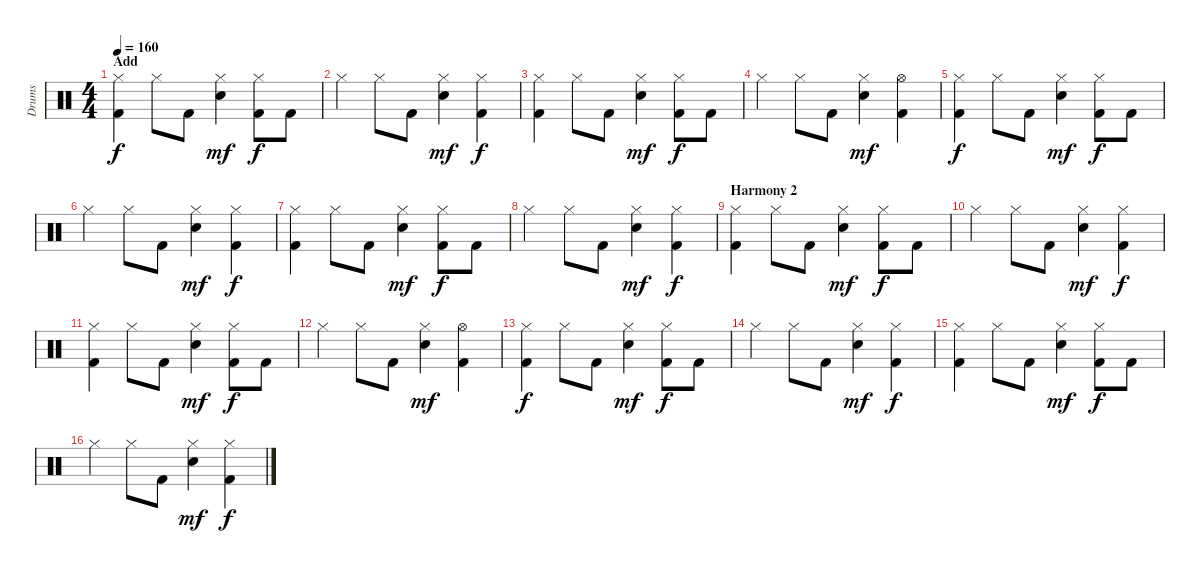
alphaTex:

\track ("Drums" "Drums") {instrument percussion}
\staff {score}
\articulation defaults
\ts (4 4)
\section ("" "Add")
\tempo 160
\clef neutral
\ks c
("Hi-Hat (closed)" "Kick (hit) 2").4{dy f} "Hi-Hat (closed)".8 "Kick (hit) 2".8 ("Hi-Hat (closed)" "Electric Snare (hit)").4{dy mf} ("Hi-Hat (closed)" "Kick (hit) 2").8{dy f} "Kick (hit) 2".8 |
"Hi-Hat (closed)".4 "Hi-Hat (closed)".8 "Kick (hit) 2".8 ("Hi-Hat (closed)" "Electric Snare (hit)").4{dy mf} ("Hi-Hat (closed)" "Kick (hit) 2").4{dy f} |
("Hi-Hat (closed)" "Kick (hit) 2").4 "Hi-Hat (closed)".8 "Kick (hit) 2".8 ("Hi-Hat (closed)" "Electric Snare (hit)").4{dy mf} ("Hi-Hat (closed)" "Kick (hit) 2").8{dy f} "Kick (hit) 2".8 |
"Hi-Hat (closed)".4 "Hi-Hat (closed)".8 "Kick (hit) 2".8 ("Hi-Hat (closed)" "Electric Snare (hit)").4{dy mf} ("Hi-Hat (open)" "Kick (hit) 2").4 |
("Hi-Hat (closed)" "Kick (hit) 2").4{dy f} "Hi-Hat (closed)".8 "Kick (hit) 2".8 ("Hi-Hat (closed)" "Electric Snare (hit)").4{dy mf} ("Hi-Hat (closed)" "Kick (hit) 2").8{dy f} "Kick (hit) 2".8 |
"Hi-Hat (closed)".4 "Hi-Hat (closed)".8 "Kick (hit) 2".8 ("Hi-Hat (closed)" "Electric Snare (hit)").4{dy mf} ("Hi-Hat (closed)" "Kick (hit) 2").4{dy f} |
("Hi-Hat (closed)" "Kick (hit) 2").4 "Hi-Hat (closed)".8 "Kick (hit) 2".8 ("Hi-Hat (closed)" "Electric Snare (hit)").4{dy mf} ("Hi-Hat (closed)" "Kick (hit) 2").8{dy f} "Kick (hit) 2".8 |
"Hi-Hat (closed)".4 "Hi-Hat (closed)".8 "Kick (hit) 2".8 ("Hi-Hat (closed)" "Electric Snare (hit)").4{dy mf} ("Hi-Hat (closed)" "Kick (hit) 2").4{dy f} |
\section ("" "Harmony 2")
("Hi-Hat (closed)" "Kick (hit) 2").4 "Hi-Hat (closed)".8 "Kick (hit) 2".8 ("Hi-Hat (closed)" "Electric Snare (hit)").4{dy mf} ("Hi-Hat (closed)" "Kick (hit) 2").8{dy f} "Kick (hit) 2".8 |
"Hi-Hat (closed)".4 "Hi-Hat (closed)".8 "Kick (hit) 2".8 ("Hi-Hat (closed)" "Electric Snare (hit)").4{dy mf} ("Hi-Hat (closed)" "Kick (hit) 2").4{dy f} |
("Hi-Hat (closed)" "Kick (hit) 2").4 "Hi-Hat (closed)".8 "Kick (hit) 2".8 ("Hi-Hat (closed)" "Electric Snare (hit)").4{dy mf} ("Hi-Hat (closed)" "Kick (hit) 2").8{dy f} "Kick (hit) 2".8 |
"Hi-Hat (closed)".4 "Hi-Hat (closed)".8 "Kick (hit) 2".8 ("Hi-Hat (closed)" "Electric Snare (hit)").4{dy mf} ("Hi-Hat (open)" "Kick (hit) 2").4 |
("Hi-Hat (closed)" "Kick (hit) 2").4{dy f} "Hi-Hat (closed)".8 "Kick (hit) 2".8 ("Hi-Hat (closed)" "Electric Snare (hit)").4{dy mf} ("Hi-Hat (closed)" "Kick (hit) 2").8{dy f} "Kick (hit) 2".8 |
"Hi-Hat (closed)".4 "Hi-Hat (closed)".8 "Kick (hit) 2".8 ("Hi-Hat (closed)" "Electric Snare (hit)").4{dy mf} ("Hi-Hat (closed)" "Kick (hit) 2").4{dy f} |
("Hi-Hat (closed)" "Kick (hit) 2").4 "Hi-Hat (closed)".8 "Kick (hit) 2".8 ("Hi-Hat (closed)" "Electric Snare (hit)").4{dy mf} ("Hi-Hat (closed)" "Kick (hit) 2").8{dy f} "Kick (hit) 2".8 |
"Hi-Hat (closed)".4 "Hi-Hat (closed)".8 "Kick (hit) 2".8 ("Hi-Hat (closed)" "Electric Snare (hit)").4{dy mf} ("Hi-Hat (closed)" "Kick (hit) 2").4{dy f}
